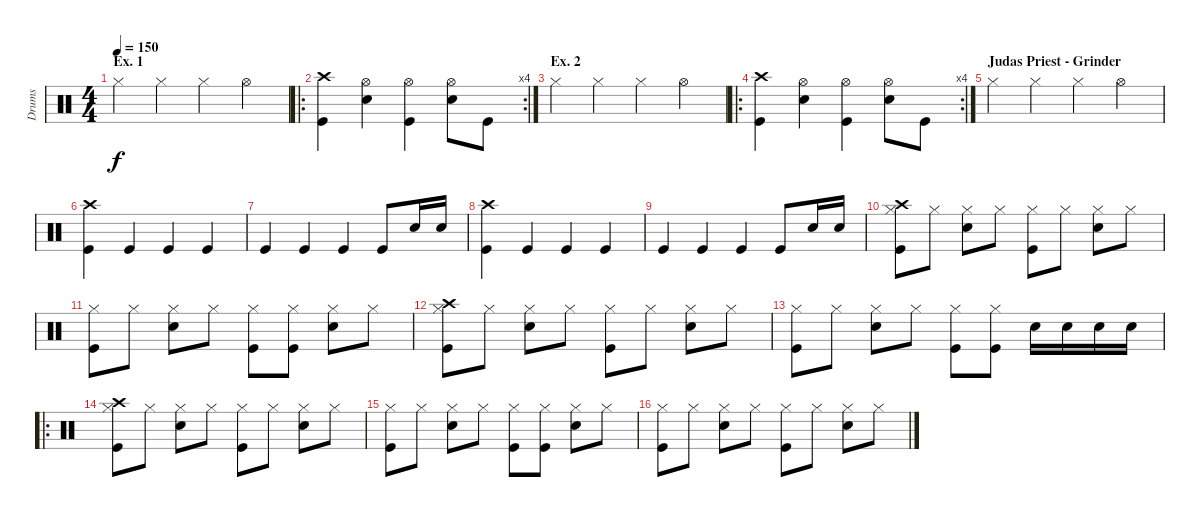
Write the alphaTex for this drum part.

\track ("Drums" "Drums") {instrument percussion}
\staff {score}
\articulation defaults
\ts (4 4)
\section ("" "Ex. 1")
\tempo 150
\clef neutral
\ks c "Hi-Hat (closed)".4{dy f} "Hi-Hat (closed)".4 "Hi-Hat (closed)".4 "Hi-Hat (open)".4
|
\ro
\rc 4
("Crash high (hit)" "Kick (hit)").4 ("Hi-Hat (open)" "Snare (hit) 2").4 ("Hi-Hat (open)" "Kick (hit)").4 ("Hi-Hat (open)" "Snare (hit) 2").8 "Kick (hit)".8 |
\section ("" "Ex. 2")
"Hi-Hat (closed)".4 "Hi-Hat (closed)".4 "Hi-Hat (closed)".4 "Hi-Hat (open)".4 |
\ro
\rc 4
("Crash high (hit)" "Kick (hit)").4 ("Hi-Hat (open)" "Snare (hit) 2").4 ("Hi-Hat (open)" "Kick (hit)").4 ("Hi-Hat (open)" "Snare (hit) 2").8 "Kick (hit)".8 |
\section ("" "Judas Priest - Grinder")
"Hi-Hat (closed)".4 "Hi-Hat (closed)".4 "Hi-Hat (closed)".4 "Hi-Hat (open)".4 |
("Crash high (hit)" "Kick (hit)").4 "Kick (hit)".4 "Kick (hit)".4 "Kick (hit)".4 |
"Kick (hit)".4 "Kick (hit)".4 "Kick (hit)".4 "Kick (hit)".8 "Snare (hit) 2".16 "Snare (hit) 2".16 |
("Crash high (hit)" "Kick (hit)").4 "Kick (hit)".4 "Kick (hit)".4 "Kick (hit)".4 |
"Kick (hit)".4 "Kick (hit)".4 "Kick (hit)".4 "Kick (hit)".8 "Snare (hit) 2".16 "Snare (hit) 2".16 |
("Crash high (hit)" "Hi-Hat (closed)" "Kick (hit)").8 "Hi-Hat (closed)".8 ("Hi-Hat (closed)" "Electric Snare (hit)").8 "Hi-Hat (closed)".8 ("Hi-Hat (closed)" "Kick (hit)").8 "Hi-Hat (closed)".8 ("Hi-Hat (closed)" "Electric Snare (hit)").8 "Hi-Hat (closed)".8 |
("Hi-Hat (closed)" "Kick (hit)").8 "Hi-Hat (closed)".8 ("Hi-Hat (closed)" "Electric Snare (hit)").8 "Hi-Hat (closed)".8 ("Hi-Hat (closed)" "Kick (hit)").8 ("Hi-Hat (closed)" "Kick (hit)").8 ("Hi-Hat (closed)" "Electric Snare (hit)").8 "Hi-Hat (closed)".8 |
("Crash high (hit)" "Hi-Hat (closed)" "Kick (hit)").8 "Hi-Hat (closed)".8 ("Hi-Hat (closed)" "Electric Snare (hit)").8 "Hi-Hat (closed)".8 ("Hi-Hat (closed)" "Kick (hit)").8 "Hi-Hat (closed)".8 ("Hi-Hat (closed)" "Electric Snare (hit)").8 "Hi-Hat (closed)".8 |
("Hi-Hat (closed)" "Kick (hit)").8 "Hi-Hat (closed)".8 ("Hi-Hat (closed)" "Electric Snare (hit)").8 "Hi-Hat (closed)".8 ("Hi-Hat (closed)" "Kick (hit)").8 ("Hi-Hat (closed)" "Kick (hit)").8 "Electric Snare (hit)".16 "Electric Snare (hit)".16 "Electric Snare (hit)".16 "Electric Snare (hit)".16 |
\ro
("Crash high (hit)" "Hi-Hat (closed)" "Kick (hit)").8 "Hi-Hat (closed)".8 ("Hi-Hat (closed)" "Electric Snare (hit)").8 "Hi-Hat (closed)".8 ("Hi-Hat (closed)" "Kick (hit)").8 "Hi-Hat (closed)".8 ("Hi-Hat (closed)" "Electric Snare (hit)").8 "Hi-Hat (closed)".8 |
("Hi-Hat (closed)" "Kick (hit)").8 "Hi-Hat (closed)".8 ("Hi-Hat (closed)" "Electric Snare (hit)").8 "Hi-Hat (closed)".8 ("Hi-Hat (closed)" "Kick (hit)").8 ("Hi-Hat (closed)" "Kick (hit)").8 ("Hi-Hat (closed)" "Electric Snare (hit)").8 "Hi-Hat (closed)".8 |
("Hi-Hat (closed)" "Kick (hit)").8 "Hi-Hat (closed)".8 ("Hi-Hat (closed)" "Electric Snare (hit)").8 "Hi-Hat (closed)".8 ("Hi-Hat (closed)" "Kick (hit)").8 "Hi-Hat (closed)".8 ("Hi-Hat (closed)" "Electric Snare (hit)").8 "Hi-Hat (closed)".8
